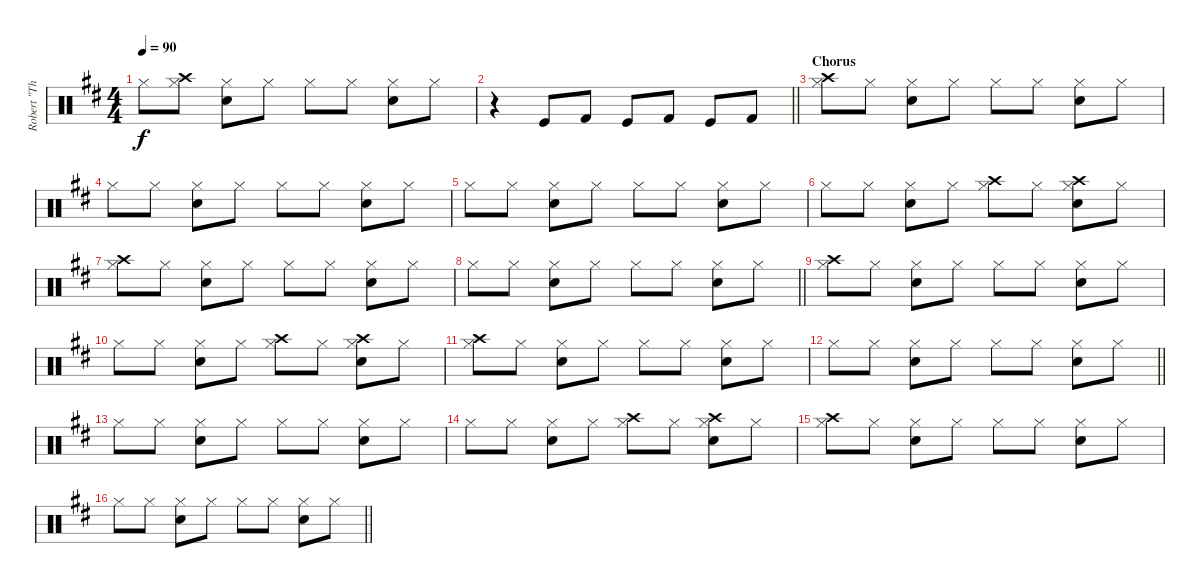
\track ("Robert \"The Visual Timekeeper\" Sweet [Dr" "Robert \"Th") {instrument percussion}
\staff {score}
\articulation defaults
\ts (4 4)
\tempo 90
\clef neutral
\ks d "Hi-Hat (closed)".8{dy f}
("Hi-Hat (closed)" "Crash high (hit)").8 ("Hi-Hat (closed)" "Snare (hit) 2").8 "Hi-Hat (closed)".8 "Hi-Hat (closed)".8 "Hi-Hat (closed)".8 ("Hi-Hat (closed)" "Snare (hit) 2").8 "Hi-Hat (closed)".8 |
\barLineRight lightlight
r.4{volume 0} "Kick (hit)".8{volume 16} "Kick (hit) 2".8 "Kick (hit)".8 "Kick (hit) 2".8 "Kick (hit)".8 "Kick (hit) 2".8 |
\section ("" "Chorus")
("Crash high (hit)" "Hi-Hat (closed)").8 "Hi-Hat (closed)".8 ("Hi-Hat (closed)" "Snare (hit) 2").8 "Hi-Hat (closed)".8 "Hi-Hat (closed)".8 "Hi-Hat (closed)".8 ("Hi-Hat (closed)" "Snare (hit) 2").8 "Hi-Hat (closed)".8 |
"Hi-Hat (closed)".8 "Hi-Hat (closed)".8 ("Hi-Hat (closed)" "Snare (hit) 2").8 "Hi-Hat (closed)".8 "Hi-Hat (closed)".8 "Hi-Hat (closed)".8 ("Hi-Hat (closed)" "Snare (hit) 2").8 "Hi-Hat (closed)".8 |
"Hi-Hat (closed)".8 "Hi-Hat (closed)".8 ("Hi-Hat (closed)" "Snare (hit) 2").8 "Hi-Hat (closed)".8 "Hi-Hat (closed)".8 "Hi-Hat (closed)".8 ("Hi-Hat (closed)" "Snare (hit) 2").8 "Hi-Hat (closed)".8 |
"Hi-Hat (closed)".8 "Hi-Hat (closed)".8 ("Hi-Hat (closed)" "Snare (hit) 2").8 "Hi-Hat (closed)".8 ("Hi-Hat (closed)" "Crash high (hit)").8 "Hi-Hat (closed)".8 ("Hi-Hat (closed)" "Snare (hit) 2" "Crash high (hit)").8 "Hi-Hat (closed)".8 |
("Hi-Hat (closed)" "Crash high (hit)").8 "Hi-Hat (closed)".8 ("Hi-Hat (closed)" "Snare (hit) 2").8 "Hi-Hat (closed)".8 "Hi-Hat (closed)".8 "Hi-Hat (closed)".8 ("Hi-Hat (closed)" "Snare (hit) 2").8 "Hi-Hat (closed)".8 |
\barLineRight lightlight "Hi-Hat (closed)".8 "Hi-Hat (closed)".8
("Hi-Hat (closed)" "Snare (hit) 2").8 "Hi-Hat (closed)".8 "Hi-Hat (closed)".8 "Hi-Hat (closed)".8 ("Hi-Hat (closed)" "Snare (hit) 2").8 "Hi-Hat (closed)".8 |
("Crash high (hit)" "Hi-Hat (closed)").8 "Hi-Hat (closed)".8 ("Hi-Hat (closed)" "Snare (hit) 2").8 "Hi-Hat (closed)".8 "Hi-Hat (closed)".8 "Hi-Hat (closed)".8 ("Hi-Hat (closed)" "Snare (hit) 2").8 "Hi-Hat (closed)".8 |
"Hi-Hat (closed)".8 "Hi-Hat (closed)".8 ("Hi-Hat (closed)" "Snare (hit) 2").8 "Hi-Hat (closed)".8 ("Hi-Hat (closed)" "Crash high (hit)").8 "Hi-Hat (closed)".8 ("Hi-Hat (closed)" "Snare (hit) 2" "Crash high (hit)").8 "Hi-Hat (closed)".8 |
("Hi-Hat (closed)" "Crash high (hit)").8 "Hi-Hat (closed)".8 ("Hi-Hat (closed)" "Snare (hit) 2").8 "Hi-Hat (closed)".8 "Hi-Hat (closed)".8 "Hi-Hat (closed)".8 ("Hi-Hat (closed)" "Snare (hit) 2").8 "Hi-Hat (closed)".8 |
\barLineRight lightlight "Hi-Hat (closed)".8 "Hi-Hat (closed)".8
("Hi-Hat (closed)" "Snare (hit) 2").8 "Hi-Hat (closed)".8 "Hi-Hat (closed)".8 "Hi-Hat (closed)".8 ("Hi-Hat (closed)" "Snare (hit) 2").8 "Hi-Hat (closed)".8 |
"Hi-Hat (closed)".8 "Hi-Hat (closed)".8 ("Hi-Hat (closed)" "Snare (hit) 2").8 "Hi-Hat (closed)".8 "Hi-Hat (closed)".8 "Hi-Hat (closed)".8 ("Hi-Hat (closed)" "Snare (hit) 2").8 "Hi-Hat (closed)".8 |
"Hi-Hat (closed)".8 "Hi-Hat (closed)".8 ("Hi-Hat (closed)" "Snare (hit) 2").8 "Hi-Hat (closed)".8 ("Hi-Hat (closed)" "Crash high (hit)").8 "Hi-Hat (closed)".8 ("Hi-Hat (closed)" "Snare (hit) 2" "Crash high (hit)").8 "Hi-Hat (closed)".8 |
("Hi-Hat (closed)" "Crash high (hit)").8 "Hi-Hat (closed)".8 ("Hi-Hat (closed)" "Snare (hit) 2").8 "Hi-Hat (closed)".8 "Hi-Hat (closed)".8 "Hi-Hat (closed)".8 ("Hi-Hat (closed)" "Snare (hit) 2").8 "Hi-Hat (closed)".8 |
\barLineRight lightlight "Hi-Hat (closed)".8 "Hi-Hat (closed)".8
("Hi-Hat (closed)" "Snare (hit) 2").8 "Hi-Hat (closed)".8 "Hi-Hat (closed)".8 "Hi-Hat (closed)".8 ("Hi-Hat (closed)" "Snare (hit) 2").8 "Hi-Hat (closed)".8
